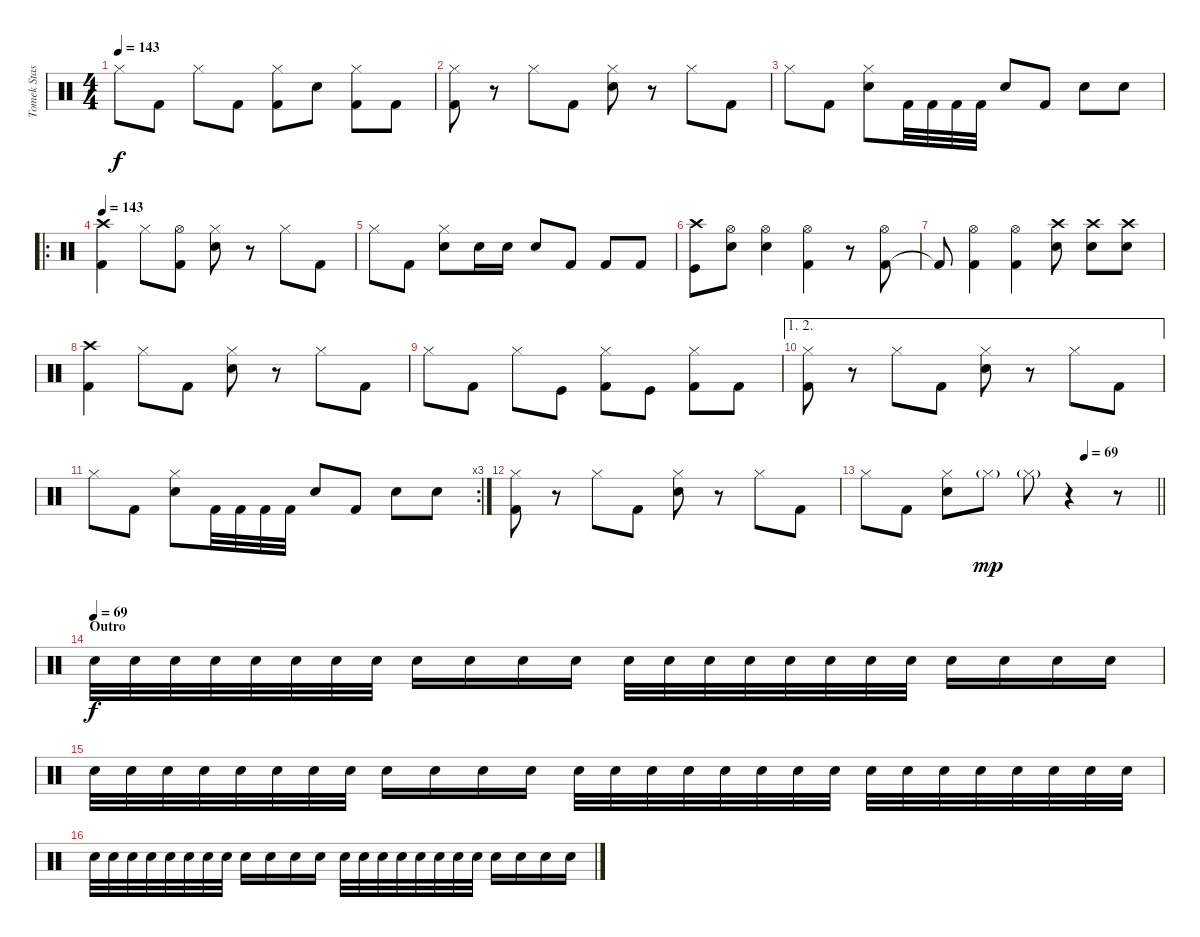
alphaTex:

\track ("Tomek Stasiak" "Tomek Stas") {instrument percussion}
\staff {score}
\articulation defaults
\ts (4 4)
\tempo 143
\clef neutral
\ks c "Hi-Hat (closed)".8{dy f} "Kick (hit) 2".8 "Hi-Hat (closed)".8 "Kick (hit) 2".8
("Hi-Hat (closed)" "Kick (hit) 2").8 "Snare (hit) 2".8 ("Hi-Hat (closed)" "Kick (hit) 2").8 "Kick (hit) 2".8 |
("Hi-Hat (closed)" "Kick (hit) 2").8 r.8 "Hi-Hat (closed)".8 "Kick (hit) 2".8 ("Hi-Hat (closed)" "Snare (hit) 2").8 r.8 "Hi-Hat (closed)".8 "Kick (hit) 2".8 |
"Hi-Hat (closed)".8 "Kick (hit) 2".8 ("Hi-Hat (closed)" "Snare (hit) 2").8 "Kick (hit) 2".32 "Kick (hit) 2".32 "Kick (hit) 2".32 "Kick (hit) 2".32 "Snare (hit) 2".8 "Kick (hit) 2".8 "Snare (hit) 2".8 "Snare (hit) 2".8 |
\ro
\tempo 143
("Crash high (hit)" "Kick (hit) 2").4 "Hi-Hat (closed)".8 ("Hi-Hat (open)" "Kick (hit) 2").8 ("Hi-Hat (closed)" "Snare (hit) 2").8 r.8 "Hi-Hat (closed)".8 "Kick (hit) 2".8 |
"Hi-Hat (closed)".8 "Kick (hit) 2".8 ("Hi-Hat (closed)" "Snare (hit) 2").8 "Electric Snare (hit)".16 "Electric Snare (hit)".16 "Electric Snare (hit)".8 "Kick (hit) 2".8 "Kick (hit) 2".8 "Kick (hit) 2".8 |
("Kick (hit)" "Crash high (hit)").8 ("Snare (hit) 2" "Hi-Hat (open)").8 ("Snare (hit) 2" "Hi-Hat (open)").4 ("Kick (hit) 2" "Hi-Hat (open)").4 r.8 ("Kick (hit) 2" "Hi-Hat (open)").8 |
"Kick (hit) 2"{t}.8 ("Kick (hit) 2" "Hi-Hat (open)").4 ("Kick (hit) 2" "Hi-Hat (open)").4 ("Crash high (hit)" "Snare (hit) 2").8 ("Crash high (hit)" "Snare (hit) 2").8 ("Crash high (hit)" "Snare (hit) 2").8 |
("Crash high (hit)" "Kick (hit) 2").4 "Hi-Hat (closed)".8 "Kick (hit) 2".8 ("Hi-Hat (closed)" "Snare (hit) 2").8 r.8 "Hi-Hat (closed)".8 "Kick (hit) 2".8 |
"Hi-Hat (closed)".8 "Kick (hit) 2".8 "Hi-Hat (closed)".8 "Kick (hit)".8 ("Hi-Hat (closed)" "Kick (hit) 2").8 "Kick (hit)".8 ("Hi-Hat (closed)" "Kick (hit) 2").8 "Kick (hit) 2".8 |
\ae (1 2)
("Hi-Hat (closed)" "Kick (hit) 2").8 r.8 "Hi-Hat (closed)".8 "Kick (hit) 2".8 ("Hi-Hat (closed)" "Snare (hit) 2").8 r.8 "Hi-Hat (closed)".8 "Kick (hit) 2".8 |
\rc 3 "Hi-Hat (closed)".8 "Kick (hit) 2".8
("Hi-Hat (closed)" "Snare (hit) 2").8 "Kick (hit) 2".32 "Kick (hit) 2".32 "Kick (hit) 2".32 "Kick (hit) 2".32 "Snare (hit) 2".8 "Kick (hit) 2".8 "Snare (hit) 2".8 "Snare (hit) 2".8 |
("Hi-Hat (closed)" "Kick (hit) 2").8 r.8 "Hi-Hat (closed)".8 "Kick (hit) 2".8 ("Hi-Hat (closed)" "Snare (hit) 2").8 r.8 "Hi-Hat (closed)".8 "Kick (hit) 2".8 |
\tempo (69 0.75)
\barLineRight lightlight "Hi-Hat (closed)".8 "Kick (hit) 2".8
("Hi-Hat (closed)" "Snare (hit) 2").8 "Hi-Hat (closed)"{g}.8{dy mp} "Hi-Hat (closed)"{g}.8 r.4 r.8 |
\section ("" "Outro")
\tempo (69)
"Snare (hit) 2".32{dy f volume 10} "Snare (hit) 2".32{volume 7} "Snare (hit) 2".32 "Snare (hit) 2".32 "Snare (hit) 2".32 "Snare (hit) 2".32 "Snare (hit) 2".32 "Snare (hit) 2".32 "Snare (hit) 2".16 "Snare (hit) 2".16 "Snare (hit) 2".16 "Snare (hit) 2".16 "Snare (hit) 2".32{volume 10} "Snare (hit) 2".32{volume 7} "Snare (hit) 2".32 "Snare (hit) 2".32 "Snare (hit) 2".32 "Snare (hit) 2".32 "Snare (hit) 2".32 "Snare (hit) 2".32 "Snare (hit) 2".16 "Snare (hit) 2".16 "Snare (hit) 2".16 "Snare (hit) 2".16 |
"Snare (hit) 2".32{volume 10} "Snare (hit) 2".32{volume 7} "Snare (hit) 2".32 "Snare (hit) 2".32 "Snare (hit) 2".32 "Snare (hit) 2".32 "Snare (hit) 2".32 "Snare (hit) 2".32 "Snare (hit) 2".16 "Snare (hit) 2".16 "Snare (hit) 2".16 "Snare (hit) 2".16 "Snare (hit) 2".32{volume 10} "Snare (hit) 2".32{volume 7} "Snare (hit) 2".32 "Snare (hit) 2".32 "Snare (hit) 2".32 "Snare (hit) 2".32 "Snare (hit) 2".32 "Snare (hit) 2".32 "Snare (hit) 2".32{volume 10} "Snare (hit) 2".32{volume 7} "Snare (hit) 2".32 "Snare (hit) 2".32 "Snare (hit) 2".32 "Snare (hit) 2".32 "Snare (hit) 2".32 "Snare (hit) 2".32 |
"Snare (hit) 2".32{volume 10} "Snare (hit) 2".32{volume 7} "Snare (hit) 2".32 "Snare (hit) 2".32 "Snare (hit) 2".32 "Snare (hit) 2".32 "Snare (hit) 2".32 "Snare (hit) 2".32 "Snare (hit) 2".16 "Snare (hit) 2".16 "Snare (hit) 2".16 "Snare (hit) 2".16 "Snare (hit) 2".32{volume 10} "Snare (hit) 2".32{volume 7} "Snare (hit) 2".32{volume 0} "Snare (hit) 2".32 "Snare (hit) 2".32 "Snare (hit) 2".32 "Snare (hit) 2".32 "Snare (hit) 2".32 "Snare (hit) 2".16 "Snare (hit) 2".16 "Snare (hit) 2".16 "Snare (hit) 2".16
